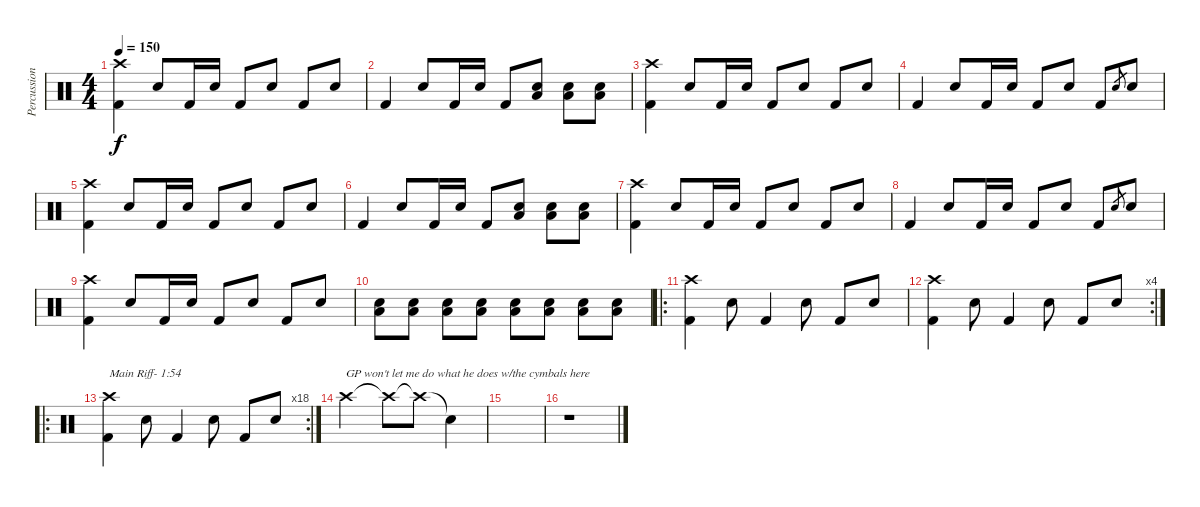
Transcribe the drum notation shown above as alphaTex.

\track ("Percussion" "Percussion") {instrument percussion}
\staff {score}
\articulation defaults
\ts (4 4)
\tempo 150
\clef neutral
\ks c
("Crash high (hit)" "Kick (hit) 2").4{dy f} "Snare (hit) 2".8 "Kick (hit) 2".16 "Snare (hit) 2".16 "Kick (hit) 2".8 "Snare (hit) 2".8 "Kick (hit) 2".8 "Snare (hit) 2".8 |
"Kick (hit) 2".4 "Snare (hit) 2".8 "Kick (hit) 2".16 "Snare (hit) 2".16 "Kick (hit) 2".8 ("Low Floor Tom (hit)" "Snare (hit) 2").8 ("Low Floor Tom (hit)" "Snare (hit) 2").8 ("Low Floor Tom (hit)" "Snare (hit) 2").8 |
("Crash high (hit)" "Kick (hit) 2").4 "Snare (hit) 2".8 "Kick (hit) 2".16 "Snare (hit) 2".16 "Kick (hit) 2".8 "Snare (hit) 2".8 "Kick (hit) 2".8 "Snare (hit) 2".8 |
"Kick (hit) 2".4 "Snare (hit) 2".8 "Kick (hit) 2".16 "Snare (hit) 2".16 "Kick (hit) 2".8 "Snare (hit) 2".8 "Kick (hit) 2".8 "Snare (hit) 2".8{gr} "Snare (hit) 2".8 |
("Crash high (hit)" "Kick (hit) 2").4 "Snare (hit) 2".8 "Kick (hit) 2".16 "Snare (hit) 2".16 "Kick (hit) 2".8 "Snare (hit) 2".8 "Kick (hit) 2".8 "Snare (hit) 2".8 |
"Kick (hit) 2".4 "Snare (hit) 2".8 "Kick (hit) 2".16 "Snare (hit) 2".16 "Kick (hit) 2".8 ("Low Floor Tom (hit)" "Snare (hit) 2").8 ("Low Floor Tom (hit)" "Snare (hit) 2").8 ("Low Floor Tom (hit)" "Snare (hit) 2").8 |
("Crash high (hit)" "Kick (hit) 2").4 "Snare (hit) 2".8 "Kick (hit) 2".16 "Snare (hit) 2".16 "Kick (hit) 2".8 "Snare (hit) 2".8 "Kick (hit) 2".8 "Snare (hit) 2".8 |
"Kick (hit) 2".4 "Snare (hit) 2".8 "Kick (hit) 2".16 "Snare (hit) 2".16 "Kick (hit) 2".8 "Snare (hit) 2".8 "Kick (hit) 2".8 "Snare (hit) 2".8{gr} "Snare (hit) 2".8 |
("Crash high (hit)" "Kick (hit) 2").4 "Snare (hit) 2".8 "Kick (hit) 2".16 "Snare (hit) 2".16 "Kick (hit) 2".8 "Snare (hit) 2".8 "Kick (hit) 2".8 "Snare (hit) 2".8 |
("Snare (hit) 2" "Low Floor Tom (hit)").8 ("Snare (hit) 2" "Low Floor Tom (hit)").8 ("Snare (hit) 2" "Low Floor Tom (hit)").8 ("Low Floor Tom (hit)" "Snare (hit) 2").8 ("Low Floor Tom (hit)" "Snare (hit) 2").8 ("Low Floor Tom (hit)" "Snare (hit) 2").8 ("Low Floor Tom (hit)" "Snare (hit) 2").8 ("Low Floor Tom (hit)" "Snare (hit) 2").8 |
\ro
("Crash high (hit)" "Kick (hit) 2").4 "Snare (hit) 2".8 "Kick (hit) 2".4 "Snare (hit) 2".8 "Kick (hit) 2".8 "Snare (hit) 2".8 |
\rc 4
("Crash high (hit)" "Kick (hit) 2").4 "Snare (hit) 2".8 "Kick (hit) 2".4 "Snare (hit) 2".8 "Kick (hit) 2".8 "Snare (hit) 2".8 |
\ro
\rc 18
("Crash high (hit)" "Kick (hit) 2").4{txt "Main Riff- 1:54"} "Snare (hit) 2".8 "Kick (hit) 2".4 "Snare (hit) 2".8 "Kick (hit) 2".8 "Snare (hit) 2".8 |
"Crash high (hit)".2{txt "GP won't let me do what he does w/the cymbals here"} "Crash high (hit)"{t}.8 "Crash high (hit)"{t}.8 "Snare (hit)"{t}.4 |
|
r.1
